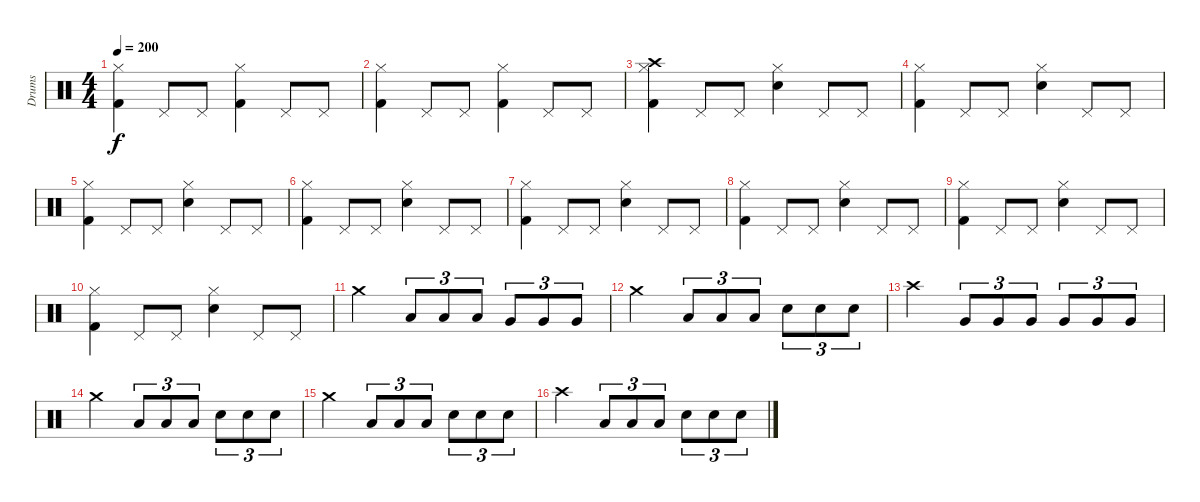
\track ("Drums" "Drums") {instrument percussion}
\staff {score}
\articulation defaults
\ts (4 4)
\tempo 200
\clef neutral
\ks c
("Hi-Hat (closed)" "Kick (hit) 2").4{dy f} "Pedal Hi-Hat (hit)".8 "Pedal Hi-Hat (hit)".8 ("Hi-Hat (closed)" "Kick (hit) 2").4 "Pedal Hi-Hat (hit)".8 "Pedal Hi-Hat (hit)".8 |
("Hi-Hat (closed)" "Kick (hit) 2").4 "Pedal Hi-Hat (hit)".8 "Pedal Hi-Hat (hit)".8 ("Hi-Hat (closed)" "Kick (hit) 2").4 "Pedal Hi-Hat (hit)".8 "Pedal Hi-Hat (hit)".8 |
("Hi-Hat (closed)" "Crash high (hit)" "Kick (hit) 2").4 "Pedal Hi-Hat (hit)".8 "Pedal Hi-Hat (hit)".8 ("Hi-Hat (closed)" "Snare (hit) 2").4 "Pedal Hi-Hat (hit)".8 "Pedal Hi-Hat (hit)".8 |
("Hi-Hat (closed)" "Kick (hit) 2").4 "Pedal Hi-Hat (hit)".8 "Pedal Hi-Hat (hit)".8 ("Hi-Hat (closed)" "Snare (hit) 2").4 "Pedal Hi-Hat (hit)".8 "Pedal Hi-Hat (hit)".8 |
("Hi-Hat (closed)" "Kick (hit) 2").4 "Pedal Hi-Hat (hit)".8 "Pedal Hi-Hat (hit)".8 ("Hi-Hat (closed)" "Snare (hit) 2").4 "Pedal Hi-Hat (hit)".8 "Pedal Hi-Hat (hit)".8 |
("Hi-Hat (closed)" "Kick (hit) 2").4 "Pedal Hi-Hat (hit)".8 "Pedal Hi-Hat (hit)".8 ("Hi-Hat (closed)" "Snare (hit) 2").4 "Pedal Hi-Hat (hit)".8 "Pedal Hi-Hat (hit)".8 |
("Hi-Hat (closed)" "Kick (hit) 2").4 "Pedal Hi-Hat (hit)".8 "Pedal Hi-Hat (hit)".8 ("Hi-Hat (closed)" "Snare (hit) 2").4 "Pedal Hi-Hat (hit)".8 "Pedal Hi-Hat (hit)".8 |
("Hi-Hat (closed)" "Kick (hit) 2").4 "Pedal Hi-Hat (hit)".8 "Pedal Hi-Hat (hit)".8 ("Hi-Hat (closed)" "Snare (hit) 2").4 "Pedal Hi-Hat (hit)".8 "Pedal Hi-Hat (hit)".8 |
("Hi-Hat (closed)" "Kick (hit) 2").4 "Pedal Hi-Hat (hit)".8 "Pedal Hi-Hat (hit)".8 ("Hi-Hat (closed)" "Snare (hit) 2").4 "Pedal Hi-Hat (hit)".8 "Pedal Hi-Hat (hit)".8 |
("Hi-Hat (closed)" "Kick (hit) 2").4 "Pedal Hi-Hat (hit)".8 "Pedal Hi-Hat (hit)".8 ("Hi-Hat (closed)" "Snare (hit) 2").4 "Pedal Hi-Hat (hit)".8 "Pedal Hi-Hat (hit)".8 |
"Crash medium (hit)".2 "Low Tom (hit)".8{tu (3 2)} "Low Tom (hit)".8{tu (3 2)} "Low Tom (hit)".8{tu (3 2)} "Very Low Tom (hit)".8{tu (3 2)} "Very Low Tom (hit)".8{tu (3 2)} "Very Low Tom (hit)".8{tu (3 2)} |
"Crash medium (hit)".2 "Low Tom (hit)".8{tu (3 2)} "Low Tom (hit)".8{tu (3 2)} "Low Tom (hit)".8{tu (3 2)} "Snare (hit) 2".8{tu (3 2)} "Snare (hit) 2".8{tu (3 2)} "Snare (hit) 2".8{tu (3 2)} |
"Crash high (hit)".2 "Very Low Tom (hit)".8{tu (3 2)} "Very Low Tom (hit)".8{tu (3 2)} "Very Low Tom (hit)".8{tu (3 2)} "Very Low Tom (hit)".8{tu (3 2)} "Very Low Tom (hit)".8{tu (3 2)} "Very Low Tom (hit)".8{tu (3 2)} |
"Crash medium (hit)".2 "Low Tom (hit)".8{tu (3 2)} "Low Tom (hit)".8{tu (3 2)} "Low Tom (hit)".8{tu (3 2)} "Snare (hit) 2".8{tu (3 2)} "Snare (hit) 2".8{tu (3 2)} "Snare (hit) 2".8{tu (3 2)} |
"Crash medium (hit)".2 "Low Tom (hit)".8{tu (3 2)} "Low Tom (hit)".8{tu (3 2)} "Low Tom (hit)".8{tu (3 2)} "Snare (hit) 2".8{tu (3 2)} "Snare (hit) 2".8{tu (3 2)} "Snare (hit) 2".8{tu (3 2)} |
"Crash high (hit)".2 "Low Floor Tom (hit)".8{tu (3 2)} "Low Floor Tom (hit)".8{tu (3 2)} "Low Floor Tom (hit)".8{tu (3 2)} "Snare (hit) 2".8{tu (3 2)} "Snare (hit) 2".8{tu (3 2)} "Snare (hit) 2".8{tu (3 2)}
